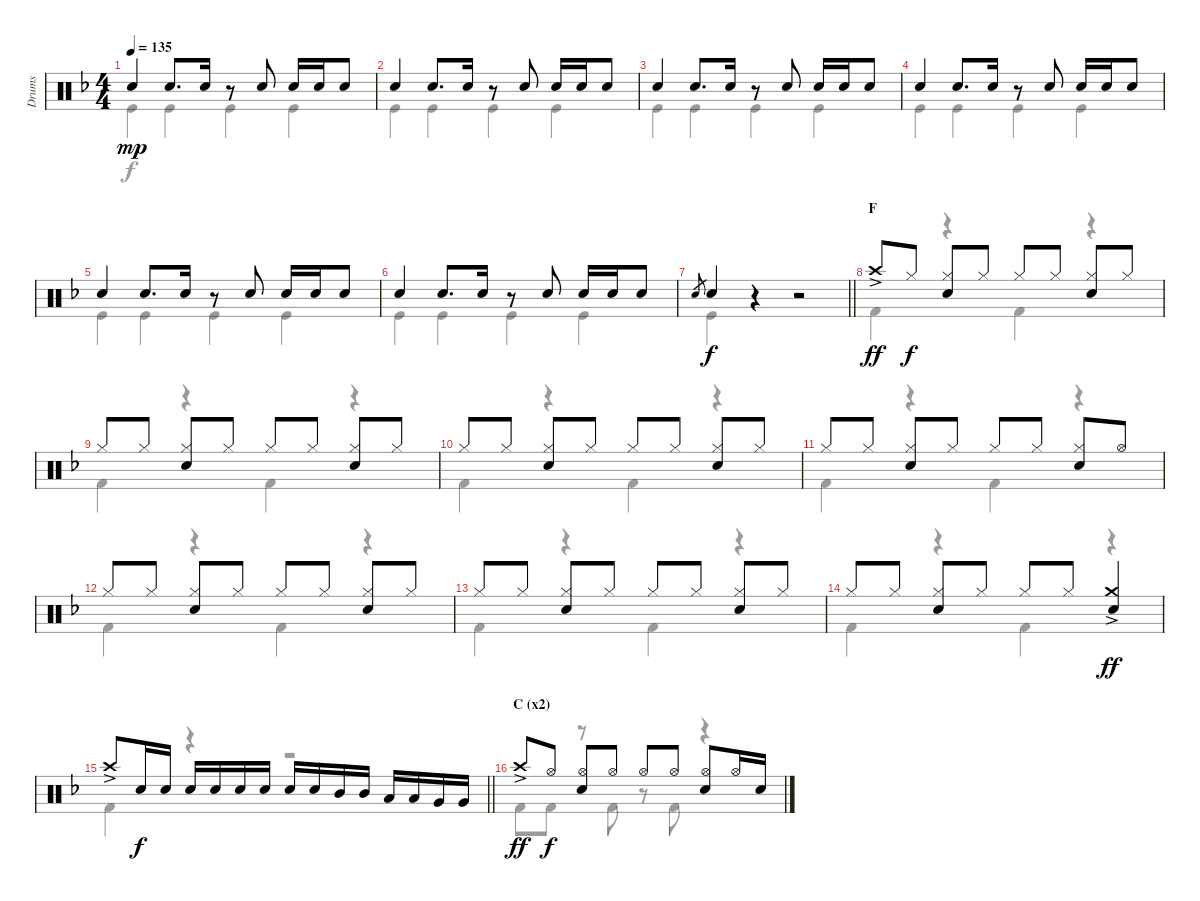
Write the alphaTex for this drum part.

\track ("Drums" "Drums") {instrument percussion}
\staff {score}
\articulation defaults
\voice
\ts (4 4)
\tempo 135
\clef neutral
\ks f "Electric Snare (hit)".4{dy mp} "Electric Snare (hit)".8{d} "Electric Snare (hit)".16
r.8 "Electric Snare (hit)".8 "Electric Snare (hit)".16 "Electric Snare (hit)".16 "Electric Snare (hit)".8 |
"Electric Snare (hit)".4 "Electric Snare (hit)".8{d} "Electric Snare (hit)".16 r.8 "Electric Snare (hit)".8 "Electric Snare (hit)".16 "Electric Snare (hit)".16 "Electric Snare (hit)".8 |
"Electric Snare (hit)".4 "Electric Snare (hit)".8{d} "Electric Snare (hit)".16 r.8 "Electric Snare (hit)".8 "Electric Snare (hit)".16 "Electric Snare (hit)".16 "Electric Snare (hit)".8 |
"Electric Snare (hit)".4 "Electric Snare (hit)".8{d} "Electric Snare (hit)".16 r.8 "Electric Snare (hit)".8 "Electric Snare (hit)".16 "Electric Snare (hit)".16 "Electric Snare (hit)".8 |
"Electric Snare (hit)".4 "Electric Snare (hit)".8{d} "Electric Snare (hit)".16 r.8 "Electric Snare (hit)".8 "Electric Snare (hit)".16 "Electric Snare (hit)".16 "Electric Snare (hit)".8 |
"Electric Snare (hit)".4 "Electric Snare (hit)".8{d} "Electric Snare (hit)".16 r.8 "Electric Snare (hit)".8 "Electric Snare (hit)".16 "Electric Snare (hit)".16 "Electric Snare (hit)".8 |
\barLineRight lightlight "Snare (hit) 2".8{gr} "Snare (hit) 2".4{dy f}
r.4 r.2 |
\section ("" "F")
"Crash high (hit)"{ac}.8{dy ff} "Hi-Hat (closed)".8{dy f} ("Hi-Hat (closed)" "Snare (hit) 2").8 "Hi-Hat (closed)".8 "Hi-Hat (closed)".8 "Hi-Hat (closed)".8 ("Hi-Hat (closed)" "Snare (hit) 2").8 "Hi-Hat (closed)".8 |
"Hi-Hat (closed)".8 "Hi-Hat (closed)".8 ("Hi-Hat (closed)" "Snare (hit) 2").8 "Hi-Hat (closed)".8 "Hi-Hat (closed)".8 "Hi-Hat (closed)".8 ("Hi-Hat (closed)" "Snare (hit) 2").8 "Hi-Hat (closed)".8 |
"Hi-Hat (closed)".8 "Hi-Hat (closed)".8 ("Hi-Hat (closed)" "Snare (hit) 2").8 "Hi-Hat (closed)".8 "Hi-Hat (closed)".8 "Hi-Hat (closed)".8 ("Hi-Hat (closed)" "Snare (hit) 2").8 "Hi-Hat (closed)".8 |
"Hi-Hat (closed)".8 "Hi-Hat (closed)".8 ("Hi-Hat (closed)" "Snare (hit) 2").8 "Hi-Hat (closed)".8 "Hi-Hat (closed)".8 "Hi-Hat (closed)".8 ("Hi-Hat (closed)" "Snare (hit) 2").8 "Hi-Hat (open)".8 |
"Hi-Hat (closed)".8 "Hi-Hat (closed)".8 ("Hi-Hat (closed)" "Snare (hit) 2").8 "Hi-Hat (closed)".8 "Hi-Hat (closed)".8 "Hi-Hat (closed)".8 ("Hi-Hat (closed)" "Snare (hit) 2").8 "Hi-Hat (closed)".8 |
"Hi-Hat (closed)".8 "Hi-Hat (closed)".8 ("Hi-Hat (closed)" "Snare (hit) 2").8 "Hi-Hat (closed)".8 "Hi-Hat (closed)".8 "Hi-Hat (closed)".8 ("Hi-Hat (closed)" "Snare (hit) 2").8 "Hi-Hat (closed)".8 |
"Hi-Hat (closed)".8 "Hi-Hat (closed)".8 ("Hi-Hat (closed)" "Snare (hit) 2").8 "Hi-Hat (closed)".8 "Hi-Hat (closed)".8 "Hi-Hat (closed)".8 ("Crash medium (hit)"{ac} "Snare (hit) 2").4{dy ff} |
\barLineRight lightlight "Crash high (hit)"{ac}.8 "Snare (hit) 2".16{dy f} "Snare (hit) 2".16 "Snare (hit) 2".16 "Snare (hit) 2".16 "Snare (hit) 2".16 "Snare (hit) 2".16 "Snare (hit) 2".16 "Snare (hit) 2".16 "Mid Tom (hit)".16 "Mid Tom (hit)".16 "Low Tom (hit)".16 "Low Tom (hit)".16 "Very Low Tom (hit)".16 "Very Low Tom (hit)".16
|
\section ("" "C (x2)")
"Crash high (hit)"{ac}.8{dy ff} "Hi-Hat (open)".8{dy f} ("Hi-Hat (open)" "Snare (hit) 2").8 "Hi-Hat (open)".8 "Hi-Hat (open)".8 "Hi-Hat (open)".8 ("Hi-Hat (open)" "Snare (hit) 2").8 "Hi-Hat (open)".16 "Snare (hit) 2".16
\voice
\clef neutral
\ottava regular
\simile none
\ks f "Kick (hit)".4{dy f} "Kick (hit)".4 "Kick (hit)".4 "Kick (hit)".4
|
"Kick (hit)".4 "Kick (hit)".4 "Kick (hit)".4 "Kick (hit)".4 |
"Kick (hit)".4 "Kick (hit)".4 "Kick (hit)".4 "Kick (hit)".4 |
"Kick (hit)".4 "Kick (hit)".4 "Kick (hit)".4 "Kick (hit)".4 |
"Kick (hit)".4 "Kick (hit)".4 "Kick (hit)".4 "Kick (hit)".4 |
"Kick (hit)".4 "Kick (hit)".4 "Kick (hit)".4 "Kick (hit)".4 |
\barLineRight lightlight "Kick (hit)".4
r.4 r.2 |
"Kick (hit) 2".4 r.4 "Kick (hit) 2".4 r.4 |
"Kick (hit) 2".4 r.4 "Kick (hit) 2".4 r.4 |
"Kick (hit) 2".4 r.4 "Kick (hit) 2".4 r.4 |
"Kick (hit) 2".4 r.4 "Kick (hit) 2".4 r.4 |
"Kick (hit) 2".4 r.4 "Kick (hit) 2".4 r.4 |
"Kick (hit) 2".4 r.4 "Kick (hit) 2".4 r.4 |
"Kick (hit) 2".4 r.4 "Kick (hit) 2".4 r.4 |
\barLineRight lightlight "Kick (hit) 2".4
r.4 r.2 |
"Kick (hit) 2".8 "Kick (hit) 2".8 r.8 "Kick (hit) 2".8 r.8 "Kick (hit) 2".8 r.4
